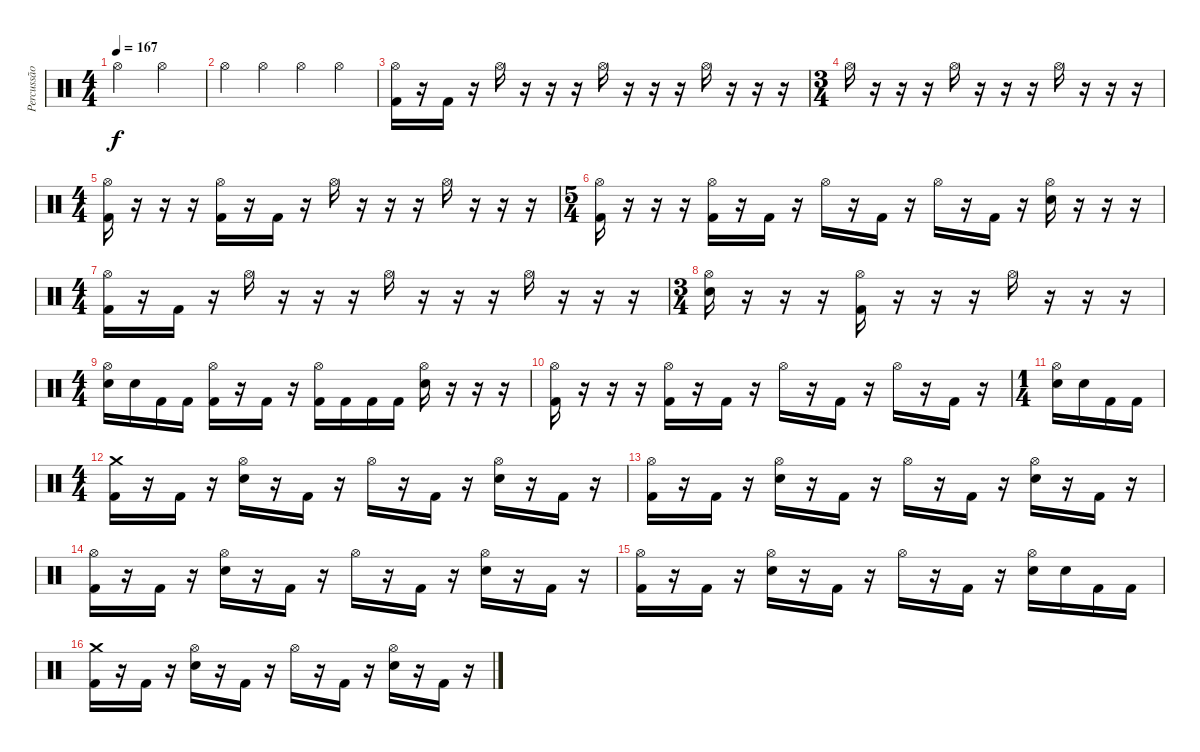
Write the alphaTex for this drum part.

\track ("Percussão" "Percussão") {instrument percussion}
\staff {score}
\articulation defaults
\ts (4 4)
\tempo 167
\clef neutral
\ks c "Hi-Hat (open)".2{dy f} "Hi-Hat (open)".2
|
"Hi-Hat (open)".4 "Hi-Hat (open)".4 "Hi-Hat (open)".4 "Hi-Hat (open)".4 |
("Hi-Hat (open)" "Kick (hit) 2").16 r.16 "Kick (hit) 2".16 r.16 "Hi-Hat (open)".16 r.16 r.16 r.16 "Hi-Hat (open)".16 r.16 r.16 r.16 "Hi-Hat (open)".16 r.16 r.16 r.16 |
\ts (3 4)
"Hi-Hat (open)".16 r.16 r.16 r.16 "Hi-Hat (open)".16 r.16 r.16 r.16 "Hi-Hat (open)".16 r.16 r.16 r.16 |
\ts (4 4)
("Hi-Hat (open)" "Kick (hit) 2").16 r.16 r.16 r.16 ("Hi-Hat (open)" "Kick (hit) 2").16 r.16 "Kick (hit) 2".16 r.16 "Hi-Hat (open)".16 r.16 r.16 r.16 "Hi-Hat (open)".16 r.16 r.16 r.16 |
\ts (5 4)
("Hi-Hat (open)" "Kick (hit) 2").16 r.16 r.16 r.16 ("Hi-Hat (open)" "Kick (hit) 2").16 r.16 "Kick (hit) 2".16 r.16 "Hi-Hat (open)".16 r.16 "Kick (hit) 2".16 r.16 "Hi-Hat (open)".16 r.16 "Kick (hit) 2".16 r.16 ("Hi-Hat (open)" "Electric Snare (hit)").16 r.16 r.16 r.16 |
\ts (4 4)
("Hi-Hat (open)" "Kick (hit) 2").16 r.16 "Kick (hit) 2".16 r.16 "Hi-Hat (open)".16 r.16 r.16 r.16 "Hi-Hat (open)".16 r.16 r.16 r.16 "Hi-Hat (open)".16 r.16 r.16 r.16 |
\ts (3 4)
("Hi-Hat (open)" "Electric Snare (hit)").16 r.16 r.16 r.16 ("Hi-Hat (open)" "Kick (hit) 2").16 r.16 r.16 r.16 "Hi-Hat (open)".16 r.16 r.16 r.16 |
\ts (4 4)
("Hi-Hat (open)" "Electric Snare (hit)").16 "Electric Snare (hit)".16 "Kick (hit) 2".16 "Kick (hit) 2".16 ("Hi-Hat (open)" "Kick (hit) 2").16 r.16 "Kick (hit) 2".16 r.16 ("Hi-Hat (open)" "Kick (hit) 2").16 "Kick (hit) 2".16 "Kick (hit) 2".16 "Kick (hit) 2".16 ("Hi-Hat (open)" "Electric Snare (hit)").16 r.16 r.16 r.16 |
("Hi-Hat (open)" "Kick (hit) 2").16 r.16 r.16 r.16 ("Hi-Hat (open)" "Kick (hit) 2").16 r.16 "Kick (hit) 2".16 r.16 "Hi-Hat (open)".16 r.16 "Kick (hit) 2".16 r.16 "Hi-Hat (open)".16 r.16 "Kick (hit) 2".16 r.16 |
\ts (1 4)
("Hi-Hat (open)" "Electric Snare (hit)").16 "Electric Snare (hit)".16 "Kick (hit) 2".16 "Kick (hit) 2".16 |
\ts (4 4)
("Crash medium (hit)" "Kick (hit) 2").16 r.16 "Kick (hit) 2".16 r.16 ("Hi-Hat (open)" "Electric Snare (hit)").16 r.16 "Kick (hit) 2".16 r.16 "Hi-Hat (open)".16 r.16 "Kick (hit) 2".16 r.16 ("Hi-Hat (open)" "Electric Snare (hit)").16 r.16 "Kick (hit) 2".16 r.16 |
("Hi-Hat (open)" "Kick (hit) 2").16 r.16 "Kick (hit) 2".16 r.16 ("Hi-Hat (open)" "Electric Snare (hit)").16 r.16 "Kick (hit) 2".16 r.16 "Hi-Hat (open)".16 r.16 "Kick (hit) 2".16 r.16 ("Hi-Hat (open)" "Electric Snare (hit)").16 r.16 "Kick (hit) 2".16 r.16 |
("Hi-Hat (open)" "Kick (hit) 2").16 r.16 "Kick (hit) 2".16 r.16 ("Hi-Hat (open)" "Electric Snare (hit)").16 r.16 "Kick (hit) 2".16 r.16 "Hi-Hat (open)".16 r.16 "Kick (hit) 2".16 r.16 ("Hi-Hat (open)" "Electric Snare (hit)").16 r.16 "Kick (hit) 2".16 r.16 |
("Hi-Hat (open)" "Kick (hit) 2").16 r.16 "Kick (hit) 2".16 r.16 ("Hi-Hat (open)" "Electric Snare (hit)").16 r.16 "Kick (hit) 2".16 r.16 "Hi-Hat (open)".16 r.16 "Kick (hit) 2".16 r.16 ("Hi-Hat (open)" "Electric Snare (hit)").16 "Electric Snare (hit)".16 "Kick (hit) 2".16 "Kick (hit) 2".16 |
("Crash medium (hit)" "Kick (hit) 2").16 r.16 "Kick (hit) 2".16 r.16 ("Hi-Hat (open)" "Electric Snare (hit)").16 r.16 "Kick (hit) 2".16 r.16 "Hi-Hat (open)".16 r.16 "Kick (hit) 2".16 r.16 ("Hi-Hat (open)" "Electric Snare (hit)").16 r.16 "Kick (hit) 2".16 r.16
